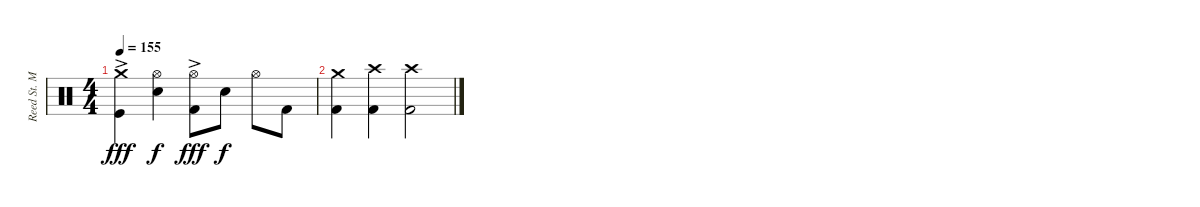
\track ("Reed St. Mark" "Reed St. M") {instrument percussion}
\staff {score}
\articulation defaults
\ts (4 4)
\tempo 155
\clef neutral
\ks c
("Crash medium (hit)" "Kick (hit)"{ac}).4{dy fff} ("Hi-Hat (open)" "Snare (hit) 2").4{dy f} ("Hi-Hat (open)"{ac} "Kick (hit) 2").8{dy fff} "Snare (hit) 2".8{dy f} "Hi-Hat (open)".8 "Kick (hit) 2".8 |
("Crash medium (hit)" "Kick (hit) 2").4 ("Crash high (hit)" "Kick (hit) 2").4 ("Crash high (hit)" "Kick (hit) 2").2
